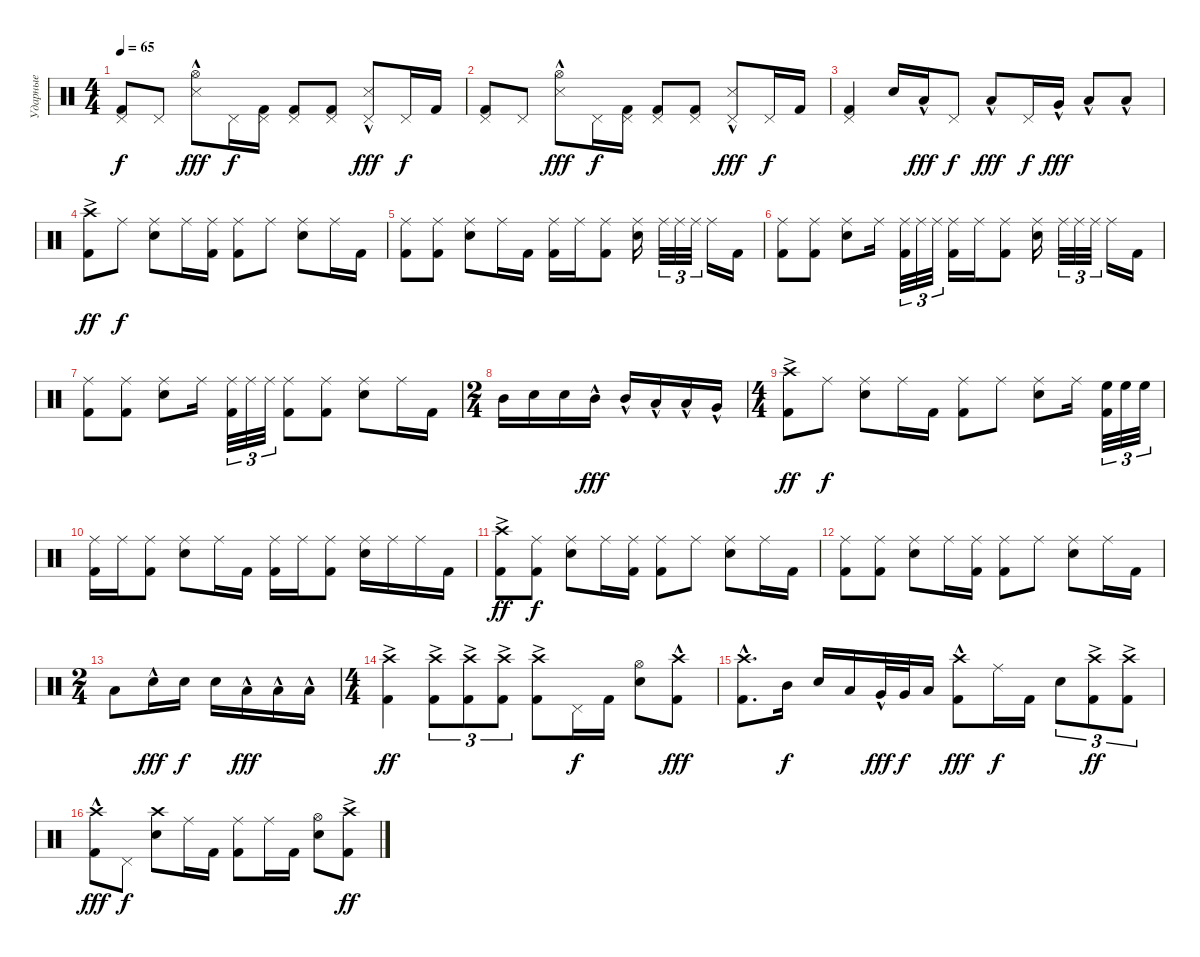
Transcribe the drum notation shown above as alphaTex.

\track ("Ударные" "Ударные") {instrument percussion}
\staff {score}
\articulation defaults
\ts (4 4)
\tempo 65
\clef neutral
\ks c
("Kick (hit) 2" "Pedal Hi-Hat (hit)").8{dy f} "Pedal Hi-Hat (hit)".8 ("Snare (side stick) 3"{hac} "Hi-Hat (open)").8{dy fff} "Pedal Hi-Hat (hit)".16{dy f} ("Kick (hit) 2" "Pedal Hi-Hat (hit)").16 ("Kick (hit) 2" "Pedal Hi-Hat (hit)").8 ("Kick (hit) 2" "Pedal Hi-Hat (hit)").8 ("Snare (side stick) 3"{hac} "Pedal Hi-Hat (hit)").8{dy fff} "Pedal Hi-Hat (hit)".16{dy f} "Kick (hit) 2".16 |
("Kick (hit) 2" "Pedal Hi-Hat (hit)").8 "Pedal Hi-Hat (hit)".8 ("Snare (side stick) 3"{hac} "Hi-Hat (open)").8{dy fff} "Pedal Hi-Hat (hit)".16{dy f} ("Kick (hit) 2" "Pedal Hi-Hat (hit)").16 ("Kick (hit) 2" "Pedal Hi-Hat (hit)").8 ("Kick (hit) 2" "Pedal Hi-Hat (hit)").8 ("Snare (side stick) 3"{hac} "Pedal Hi-Hat (hit)").8{dy fff} "Pedal Hi-Hat (hit)".16{dy f} "Kick (hit) 2".16 |
("Kick (hit) 2" "Pedal Hi-Hat (hit)").4 "Snare (hit) 2".16 "Low Tom (hit)"{hac}.16{dy fff} "Pedal Hi-Hat (hit)".8{dy f} "Low Tom (hit)"{hac}.8{dy fff} "Pedal Hi-Hat (hit)".16{dy f} "Very Low Tom (hit)"{hac}.16{dy fff} "Low Floor Tom (hit)"{hac}.8 "Low Floor Tom (hit)"{hac}.8 |
("Kick (hit) 2" "Crash high (hit)"{ac}).8{dy ff} "Ride (middle)".8{dy f} ("Snare (hit) 2" "Ride (middle)").8 "Ride (middle)".16 ("Kick (hit) 2" "Ride (middle)").16 ("Kick (hit) 2" "Ride (middle)").8 "Ride (middle)".8 ("Snare (hit) 2" "Ride (middle)").8 "Ride (middle)".16 "Kick (hit) 2".16 |
("Kick (hit) 2" "Ride (middle)").8 ("Kick (hit) 2" "Ride (middle)").8 ("Snare (hit) 2" "Ride (middle)").8 "Ride (middle)".16 "Kick (hit) 2".16 ("Kick (hit) 2" "Ride (middle)").16 "Ride (middle)".16 ("Kick (hit) 2" "Ride (middle)").8 ("Snare (hit) 2" "Ride (middle)").16{beam splitsecondary} "Ride (middle)".32{tu (3 2)} "Ride (middle)".32{tu (3 2)} "Ride (middle)".32{tu (3 2) beam splitsecondary} "Ride (middle)".16 "Kick (hit) 2".16 |
("Kick (hit) 2" "Ride (middle)").8 ("Kick (hit) 2" "Ride (middle)").8 ("Snare (hit) 2" "Ride (middle)").8 "Ride (middle)".16{beam splitsecondary} ("Kick (hit) 2" "Ride (middle)").32{tu (3 2)} "Ride (middle)".32{tu (3 2)} "Ride (middle)".32{tu (3 2)} ("Kick (hit) 2" "Ride (middle)").16 "Ride (middle)".16 ("Kick (hit) 2" "Ride (middle)").8 ("Snare (hit) 2" "Ride (middle)").16{beam splitsecondary} "Ride (middle)".32{tu (3 2)} "Ride (middle)".32{tu (3 2)} "Ride (middle)".32{tu (3 2) beam splitsecondary} "Ride (middle)".16 "Kick (hit) 2".16 |
("Kick (hit) 2" "Ride (middle)").8 ("Kick (hit) 2" "Ride (middle)").8 ("Snare (hit) 2" "Ride (middle)").8 "Ride (middle)".16{beam splitsecondary} ("Kick (hit) 2" "Ride (middle)").32{tu (3 2)} "Ride (middle)".32{tu (3 2)} "Ride (middle)".32{tu (3 2)} ("Kick (hit) 2" "Ride (middle)").8 ("Kick (hit) 2" "Ride (middle)").8 ("Snare (hit) 2" "Ride (middle)").8 "Ride (middle)".16 "Kick (hit) 2".16 |
\ts (2 4)
"Mid Tom (hit)".16 "Snare (hit) 2".16 "Snare (hit) 2".16 "Mid Tom (hit)"{hac}.16{dy fff} "Mid Tom (hit)"{hac}.16 "Low Tom (hit)"{hac}.16 "Low Tom (hit)"{hac}.16 "Very Low Tom (hit)"{hac}.16 |
\ts (4 4)
("Kick (hit) 2" "Crash high (hit)"{ac}).8{dy ff} "Ride (middle)".8{dy f} ("Snare (hit) 2" "Ride (middle)").8 "Ride (middle)".16 "Kick (hit) 2".16 ("Kick (hit) 2" "Ride (middle)").8 "Ride (middle)".8 ("Snare (hit) 2" "Ride (middle)").8 "Ride (middle)".16{beam splitsecondary} ("Kick (hit) 2" "High Floor Tom (hit)").32{tu (3 2)} "High Floor Tom (hit)".32{tu (3 2)} "High Floor Tom (hit)".32{tu (3 2)} |
("Kick (hit) 2" "Ride (middle)").16 "Ride (middle)".16 ("Kick (hit) 2" "Ride (middle)").8 ("Snare (hit) 2" "Ride (middle)").8 "Ride (middle)".16 "Kick (hit) 2".16 ("Kick (hit) 2" "Ride (middle)").16 "Ride (middle)".16 ("Kick (hit) 2" "Ride (middle)").8 ("Snare (hit) 2" "Ride (middle)").16 "Ride (middle)".16 "Ride (middle)".16 "Kick (hit) 2".16 |
("Kick (hit) 2" "Crash high (hit)"{ac}).8{dy ff} ("Kick (hit) 2" "Ride (middle)").8{dy f} ("Snare (hit) 2" "Ride (middle)").8 "Ride (middle)".16 ("Kick (hit) 2" "Ride (middle)").16 ("Kick (hit) 2" "Ride (middle)").8 "Ride (middle)".8 ("Snare (hit) 2" "Ride (middle)").8 "Ride (middle)".16 "Kick (hit) 2".16 |
("Kick (hit) 2" "Ride (middle)").8 ("Kick (hit) 2" "Ride (middle)").8 ("Snare (hit) 2" "Ride (middle)").8 "Ride (middle)".16 ("Kick (hit) 2" "Ride (middle)").16 ("Kick (hit) 2" "Ride (middle)").8 "Ride (middle)".8 ("Snare (hit) 2" "Ride (middle)").8 "Ride (middle)".16 "Kick (hit) 2".16 |
\ts (2 4)
"Low Tom (hit)".8 "Electric Snare (hit)"{hac}.16{dy fff} "Snare (hit) 2".16{dy f} "Snare (hit) 2".16 "Low Tom (hit)"{hac}.16{dy fff} "Low Tom (hit)"{hac}.16 "Low Tom (hit)"{hac}.16 |
\ts (4 4)
("Kick (hit) 2" "Crash high (hit)"{ac}).4{dy ff} ("Kick (hit) 2" "Crash high (hit)"{ac}).8{tu (3 2)} ("Kick (hit) 2" "Crash high (hit)"{ac}).8{tu (3 2)} ("Kick (hit) 2" "Crash high (hit)"{ac}).8{tu (3 2)} ("Kick (hit) 2" "Crash high (hit)"{ac}).8 "Pedal Hi-Hat (hit)".16{dy f} "Kick (hit) 2".16 ("Snare (hit) 2" "Hi-Hat (open)").8 ("Kick (hit) 2" "Crash high (hit)"{hac}).8{dy fff} |
("Kick (hit) 2" "Crash high (hit)"{hac}).8{d} "Mid Tom (hit)".16{dy f} "Snare (hit) 2".16 "Low Tom (hit)".16 "Very Low Tom (hit)"{hac}.32{dy fff} "Very Low Tom (hit)".32{dy f} "Low Floor Tom (hit)".16 ("Kick (hit) 2" "Crash high (hit)"{hac}).8{dy fff} "Ride (middle)".16{dy f} "Kick (hit) 2".16 "Snare (hit) 2".8{tu (3 2)} ("Kick (hit) 2" "Crash high (hit)"{ac}).8{tu (3 2) dy ff} ("Kick (hit) 2" "Crash high (hit)"{ac}).8{tu (3 2)} |
("Kick (hit) 2" "Crash high (hit)"{hac}).8{dy fff} "Pedal Hi-Hat (hit)".8{dy f} ("Snare (hit) 2" "Crash high (hit)").8 "Ride (middle)".16 "Kick (hit) 2".16 ("Kick (hit) 2" "Ride (middle)").8 "Ride (middle)".16 "Kick (hit) 2".16 ("Snare (hit) 2" "Hi-Hat (open)").8 ("Kick (hit) 2" "Crash high (hit)"{ac}).8{dy ff}
